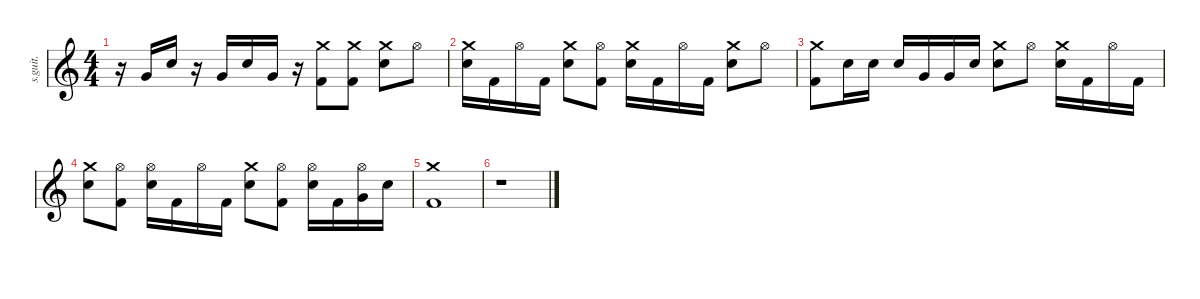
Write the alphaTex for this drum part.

\defaultSystemsLayout 4
\hideDynamics
\bracketExtendMode nobrackets
\track ("Lars Ulrich" "s.guit.") {instrument percussion}
\staff {score}
\articulation defaults
\ts (4 4)
\tempo (69 hide)
\clef g2
\ks c
r.16{dy f} "Very Low Tom (hit)".16{lyrics (0 "") lyrics (1 "") lyrics (2 "") lyrics (3 "") lyrics (4 "") dy fff} "Snare (hit) 2".16{lyrics (0 "") lyrics (1 "") lyrics (2 "") lyrics (3 "") lyrics (4 "") dy f} r.16 "Very Low Tom (hit)".16{lyrics (0 "") lyrics (1 "") lyrics (2 "") lyrics (3 "") lyrics (4 "") dy fff} "Snare (hit) 2".16{lyrics (0 "") lyrics (1 "") lyrics (2 "") lyrics (3 "") lyrics (4 "") dy f} "Very Low Tom (hit)".16{lyrics (0 "") lyrics (1 "") lyrics (2 "") lyrics (3 "") lyrics (4 "") dy fff} r.16 ("Crash medium (hit)" "Kick (hit) 2").8{lyrics (0 "") lyrics (1 "") lyrics (2 "") lyrics (3 "") lyrics (4 "") dy f} ("Crash medium (hit)" "Kick (hit) 2").8{lyrics (0 "") lyrics (1 "") lyrics (2 "") lyrics (3 "") lyrics (4 "")} ("Crash medium (hit)" "Snare (hit) 2").8{lyrics (0 "") lyrics (1 "") lyrics (2 "") lyrics (3 "") lyrics (4 "")} "Hi-Hat (open)".8{lyrics (0 "") lyrics (1 "") lyrics (2 "") lyrics (3 "") lyrics (4 "")} |
("Crash medium (hit)" "Snare (hit) 2").16{lyrics (0 "") lyrics (1 "") lyrics (2 "") lyrics (3 "") lyrics (4 "")} "Kick (hit) 2".16{lyrics (0 "") lyrics (1 "") lyrics (2 "") lyrics (3 "") lyrics (4 "") dy fff} "Hi-Hat (open)".16{lyrics (0 "") lyrics (1 "") lyrics (2 "") lyrics (3 "") lyrics (4 "") dy f} "Kick (hit) 2".16{lyrics (0 "") lyrics (1 "") lyrics (2 "") lyrics (3 "") lyrics (4 "") dy fff} ("Crash medium (hit)" "Snare (hit) 2").8{lyrics (0 "") lyrics (1 "") lyrics (2 "") lyrics (3 "") lyrics (4 "") dy f} ("Hi-Hat (open)" "Kick (hit) 2").8{lyrics (0 "") lyrics (1 "") lyrics (2 "") lyrics (3 "") lyrics (4 "")} ("Crash medium (hit)" "Snare (hit) 2").16{lyrics (0 "") lyrics (1 "") lyrics (2 "") lyrics (3 "") lyrics (4 "")} "Kick (hit) 2".16{lyrics (0 "") lyrics (1 "") lyrics (2 "") lyrics (3 "") lyrics (4 "") dy fff} "Hi-Hat (open)".16{lyrics (0 "") lyrics (1 "") lyrics (2 "") lyrics (3 "") lyrics (4 "") dy f} "Kick (hit) 2".16{lyrics (0 "") lyrics (1 "") lyrics (2 "") lyrics (3 "") lyrics (4 "") dy fff} ("Crash medium (hit)" "Snare (hit) 2").8{lyrics (0 "") lyrics (1 "") lyrics (2 "") lyrics (3 "") lyrics (4 "") dy f} "Hi-Hat (open)".8{lyrics (0 "") lyrics (1 "") lyrics (2 "") lyrics (3 "") lyrics (4 "")} |
("Crash medium (hit)" "Kick (hit) 2").8{lyrics (0 "") lyrics (1 "") lyrics (2 "") lyrics (3 "") lyrics (4 "")} "Snare (hit) 2".16{lyrics (0 "") lyrics (1 "") lyrics (2 "") lyrics (3 "") lyrics (4 "") dy fff} "Snare (hit) 2".16{lyrics (0 "") lyrics (1 "") lyrics (2 "") lyrics (3 "") lyrics (4 "") dy f} "Snare (hit) 2".16{lyrics (0 "") lyrics (1 "") lyrics (2 "") lyrics (3 "") lyrics (4 "")} "Very Low Tom (hit)".16{lyrics (0 "") lyrics (1 "") lyrics (2 "") lyrics (3 "") lyrics (4 "") dy fff} "Very Low Tom (hit)".16{lyrics (0 "") lyrics (1 "") lyrics (2 "") lyrics (3 "") lyrics (4 "")} "Snare (hit) 2".16{lyrics (0 "") lyrics (1 "") lyrics (2 "") lyrics (3 "") lyrics (4 "") dy f} ("Crash medium (hit)" "Snare (hit) 2").8{lyrics (0 "") lyrics (1 "") lyrics (2 "") lyrics (3 "") lyrics (4 "")} "Hi-Hat (open)".8{lyrics (0 "") lyrics (1 "") lyrics (2 "") lyrics (3 "") lyrics (4 "")} ("Crash medium (hit)" "Snare (hit) 2").16{lyrics (0 "") lyrics (1 "") lyrics (2 "") lyrics (3 "") lyrics (4 "")} "Kick (hit) 2".16{lyrics (0 "") lyrics (1 "") lyrics (2 "") lyrics (3 "") lyrics (4 "") dy fff} "Hi-Hat (open)".16{lyrics (0 "") lyrics (1 "") lyrics (2 "") lyrics (3 "") lyrics (4 "") dy f} "Kick (hit) 2".16{lyrics (0 "") lyrics (1 "") lyrics (2 "") lyrics (3 "") lyrics (4 "") dy fff} |
("Crash medium (hit)" "Snare (hit) 2").8{lyrics (0 "") lyrics (1 "") lyrics (2 "") lyrics (3 "") lyrics (4 "") dy f} ("Hi-Hat (open)" "Kick (hit) 2").8{lyrics (0 "") lyrics (1 "") lyrics (2 "") lyrics (3 "") lyrics (4 "")} ("Hi-Hat (open)" "Snare (hit) 2").16{lyrics (0 "") lyrics (1 "") lyrics (2 "") lyrics (3 "") lyrics (4 "")} "Kick (hit) 2".16{lyrics (0 "") lyrics (1 "") lyrics (2 "") lyrics (3 "") lyrics (4 "") dy fff} "Hi-Hat (open)".16{lyrics (0 "") lyrics (1 "") lyrics (2 "") lyrics (3 "") lyrics (4 "") dy f} "Kick (hit) 2".16{lyrics (0 "") lyrics (1 "") lyrics (2 "") lyrics (3 "") lyrics (4 "") dy fff} ("Crash medium (hit)" "Snare (hit) 2").8{lyrics (0 "") lyrics (1 "") lyrics (2 "") lyrics (3 "") lyrics (4 "") dy f} ("Hi-Hat (open)" "Kick (hit) 2").8{lyrics (0 "") lyrics (1 "") lyrics (2 "") lyrics (3 "") lyrics (4 "")} ("Hi-Hat (open)" "Snare (hit) 2").16{lyrics (0 "") lyrics (1 "") lyrics (2 "") lyrics (3 "") lyrics (4 "")} "Kick (hit) 2".16{lyrics (0 "") lyrics (1 "") lyrics (2 "") lyrics (3 "") lyrics (4 "") dy fff} ("Hi-Hat (open)" "Very Low Tom (hit)").16{lyrics (0 "") lyrics (1 "") lyrics (2 "") lyrics (3 "") lyrics (4 "") dy f} "Snare (hit) 2".16{lyrics (0 "") lyrics (1 "") lyrics (2 "") lyrics (3 "") lyrics (4 "")} |
("Crash medium (hit)" "Kick (hit) 2").1{lyrics (0 "") lyrics (1 "") lyrics (2 "") lyrics (3 "") lyrics (4 "")} |
r.1
